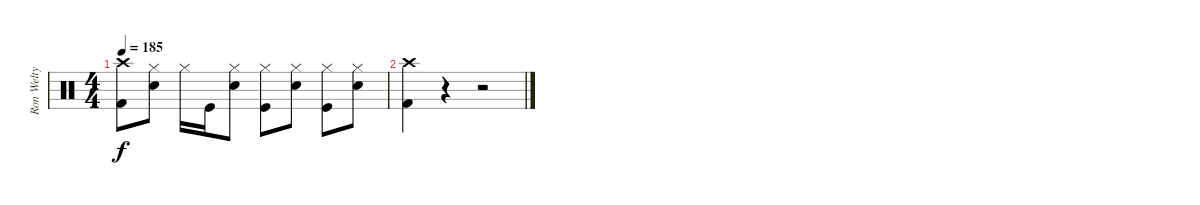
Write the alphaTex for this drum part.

\track ("Ron Welty" "Ron Welty") {instrument percussion}
\staff {score}
\articulation defaults
\ts (4 4)
\tempo 185
\clef neutral
\ks c
("Crash high (hit)" "Kick (hit) 2").8{dy f} ("Hi-Hat (closed)" "Electric Snare (hit)").8 "Hi-Hat (closed)".16 "Kick (hit)".16 ("Hi-Hat (closed)" "Electric Snare (hit)").8 ("Hi-Hat (closed)" "Kick (hit)").8 ("Hi-Hat (closed)" "Electric Snare (hit)").8 ("Hi-Hat (closed)" "Kick (hit)").8 ("Hi-Hat (closed)" "Electric Snare (hit)").8 |
("Crash high (hit)" "Kick (hit) 2").4 r.4 r.2
